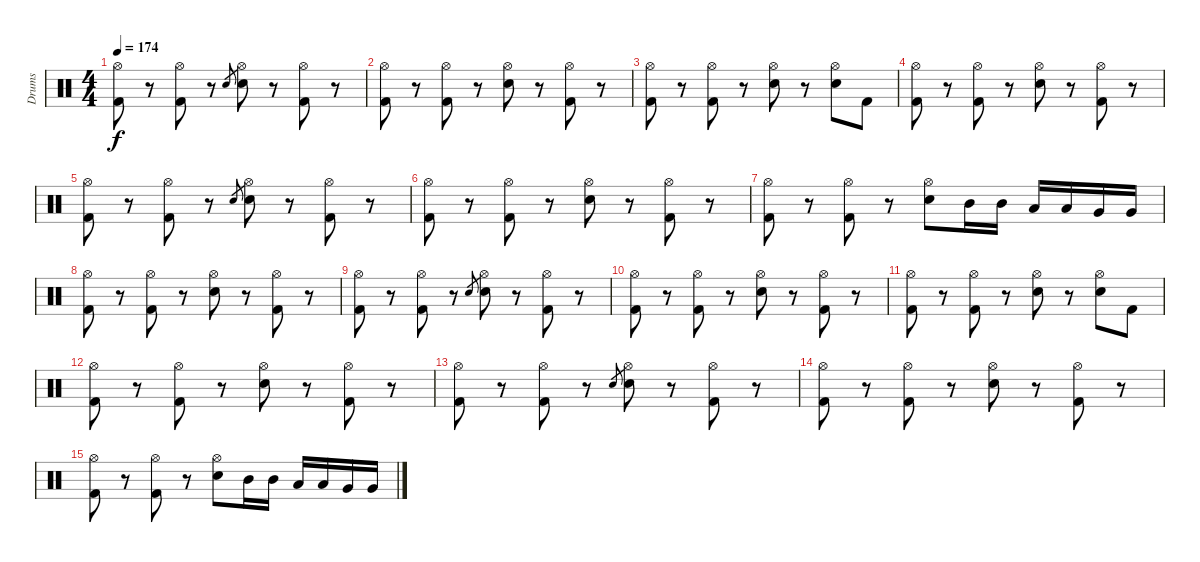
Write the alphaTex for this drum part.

\track ("Drums" "Drums") {instrument percussion}
\staff {score}
\articulation defaults
\ts (4 4)
\tempo 174
\clef neutral
\ks c
("Hi-Hat (open)" "Kick (hit) 2").8{dy f} r.8 ("Hi-Hat (open)" "Kick (hit) 2").8 r.8 "Electric Snare (hit)".8{gr} ("Hi-Hat (open)" "Electric Snare (hit)").8 r.8 ("Hi-Hat (open)" "Kick (hit) 2").8 r.8 |
("Hi-Hat (open)" "Kick (hit) 2").8 r.8 ("Hi-Hat (open)" "Kick (hit) 2").8 r.8 ("Hi-Hat (open)" "Electric Snare (hit)").8 r.8 ("Hi-Hat (open)" "Kick (hit) 2").8 r.8 |
("Hi-Hat (open)" "Kick (hit) 2").8 r.8 ("Hi-Hat (open)" "Kick (hit) 2").8 r.8 ("Hi-Hat (open)" "Electric Snare (hit)").8 r.8 ("Hi-Hat (open)" "Electric Snare (hit)").8 "Kick (hit) 2".8 |
("Hi-Hat (open)" "Kick (hit) 2").8 r.8 ("Hi-Hat (open)" "Kick (hit) 2").8 r.8 ("Hi-Hat (open)" "Electric Snare (hit)").8 r.8 ("Hi-Hat (open)" "Kick (hit) 2").8 r.8 |
("Hi-Hat (open)" "Kick (hit) 2").8 r.8 ("Hi-Hat (open)" "Kick (hit) 2").8 r.8 "Electric Snare (hit)".8{gr} ("Hi-Hat (open)" "Electric Snare (hit)").8 r.8 ("Hi-Hat (open)" "Kick (hit) 2").8 r.8 |
("Hi-Hat (open)" "Kick (hit) 2").8 r.8 ("Hi-Hat (open)" "Kick (hit) 2").8 r.8 ("Hi-Hat (open)" "Electric Snare (hit)").8 r.8 ("Hi-Hat (open)" "Kick (hit) 2").8 r.8 |
("Hi-Hat (open)" "Kick (hit) 2").8 r.8 ("Hi-Hat (open)" "Kick (hit) 2").8 r.8 ("Hi-Hat (open)" "Electric Snare (hit)").8 "Mid Tom (hit)".16 "Mid Tom (hit)".16 "Low Tom (hit)".16 "Low Tom (hit)".16 "Very Low Tom (hit)".16 "Very Low Tom (hit)".16 |
("Hi-Hat (open)" "Kick (hit) 2").8 r.8 ("Hi-Hat (open)" "Kick (hit) 2").8 r.8 ("Hi-Hat (open)" "Electric Snare (hit)").8 r.8 ("Hi-Hat (open)" "Kick (hit) 2").8 r.8 |
("Hi-Hat (open)" "Kick (hit) 2").8 r.8 ("Hi-Hat (open)" "Kick (hit) 2").8 r.8 "Electric Snare (hit)".8{gr} ("Hi-Hat (open)" "Electric Snare (hit)").8 r.8 ("Hi-Hat (open)" "Kick (hit) 2").8 r.8 |
("Hi-Hat (open)" "Kick (hit) 2").8 r.8 ("Hi-Hat (open)" "Kick (hit) 2").8 r.8 ("Hi-Hat (open)" "Electric Snare (hit)").8 r.8 ("Hi-Hat (open)" "Kick (hit) 2").8 r.8 |
("Hi-Hat (open)" "Kick (hit) 2").8 r.8 ("Hi-Hat (open)" "Kick (hit) 2").8 r.8 ("Hi-Hat (open)" "Electric Snare (hit)").8 r.8 ("Hi-Hat (open)" "Electric Snare (hit)").8 "Kick (hit) 2".8 |
("Hi-Hat (open)" "Kick (hit) 2").8 r.8 ("Hi-Hat (open)" "Kick (hit) 2").8 r.8 ("Hi-Hat (open)" "Electric Snare (hit)").8 r.8 ("Hi-Hat (open)" "Kick (hit) 2").8 r.8 |
("Hi-Hat (open)" "Kick (hit) 2").8 r.8 ("Hi-Hat (open)" "Kick (hit) 2").8 r.8 "Electric Snare (hit)".8{gr} ("Hi-Hat (open)" "Electric Snare (hit)").8 r.8 ("Hi-Hat (open)" "Kick (hit) 2").8 r.8 |
("Hi-Hat (open)" "Kick (hit) 2").8 r.8 ("Hi-Hat (open)" "Kick (hit) 2").8 r.8 ("Hi-Hat (open)" "Electric Snare (hit)").8 r.8 ("Hi-Hat (open)" "Kick (hit) 2").8 r.8 |
("Hi-Hat (open)" "Kick (hit) 2").8 r.8 ("Hi-Hat (open)" "Kick (hit) 2").8 r.8 ("Hi-Hat (open)" "Electric Snare (hit)").8 "Mid Tom (hit)".16 "Mid Tom (hit)".16 "Low Tom (hit)".16 "Low Tom (hit)".16 "Very Low Tom (hit)".16 "Very Low Tom (hit)".16
